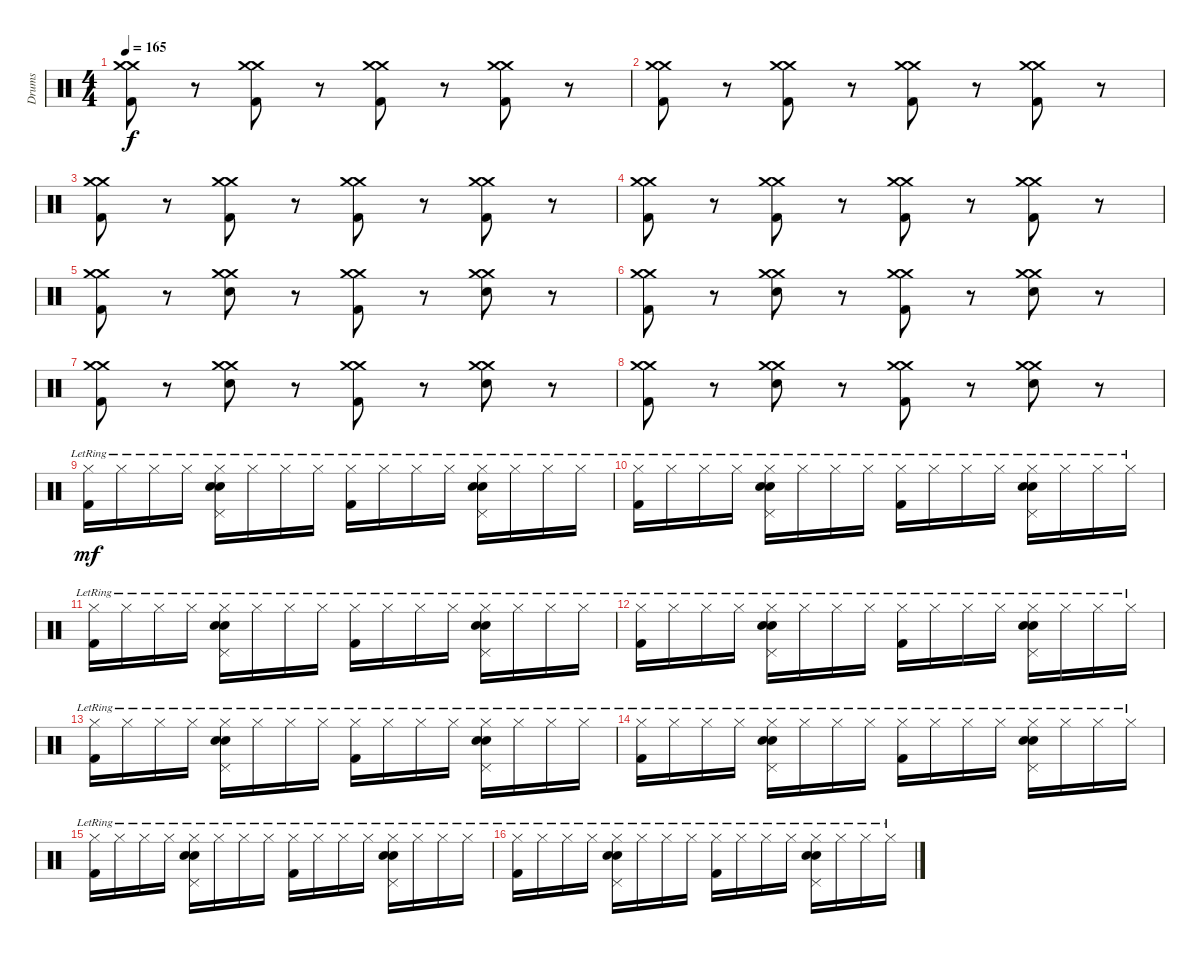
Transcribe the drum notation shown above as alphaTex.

\track ("Drums" "Drums") {instrument percussion}
\staff {score}
\articulation defaults
\ts (4 4)
\tempo 165
\clef neutral
\ks c
("Crash medium (hit)" "Crash medium (hit)" "Kick (hit) 2").8{dy f} r.8 ("Crash medium (hit)" "Crash medium (hit)" "Kick (hit) 2").8 r.8 ("Crash medium (hit)" "Crash medium (hit)" "Kick (hit) 2").8 r.8 ("Crash medium (hit)" "Crash medium (hit)" "Kick (hit) 2").8 r.8 |
("Crash medium (hit)" "Crash medium (hit)" "Kick (hit) 2").8 r.8 ("Crash medium (hit)" "Crash medium (hit)" "Kick (hit) 2").8 r.8 ("Crash medium (hit)" "Crash medium (hit)" "Kick (hit) 2").8 r.8 ("Crash medium (hit)" "Crash medium (hit)" "Kick (hit) 2").8 r.8 |
("Crash medium (hit)" "Crash medium (hit)" "Kick (hit) 2").8 r.8 ("Crash medium (hit)" "Crash medium (hit)" "Kick (hit) 2").8 r.8 ("Crash medium (hit)" "Crash medium (hit)" "Kick (hit) 2").8 r.8 ("Crash medium (hit)" "Crash medium (hit)" "Kick (hit) 2").8 r.8 |
("Crash medium (hit)" "Crash medium (hit)" "Kick (hit) 2").8 r.8 ("Crash medium (hit)" "Crash medium (hit)" "Kick (hit) 2").8 r.8 ("Crash medium (hit)" "Crash medium (hit)" "Kick (hit) 2").8 r.8 ("Crash medium (hit)" "Crash medium (hit)" "Kick (hit) 2").8 r.8 |
("Crash medium (hit)" "Crash medium (hit)" "Kick (hit) 2").8 r.8 ("Crash medium (hit)" "Crash medium (hit)" "Electric Snare (hit)").8 r.8 ("Crash medium (hit)" "Crash medium (hit)" "Kick (hit) 2").8 r.8 ("Crash medium (hit)" "Crash medium (hit)" "Electric Snare (hit)").8 r.8 |
("Crash medium (hit)" "Crash medium (hit)" "Kick (hit) 2").8 r.8 ("Crash medium (hit)" "Crash medium (hit)" "Electric Snare (hit)").8 r.8 ("Crash medium (hit)" "Crash medium (hit)" "Kick (hit) 2").8 r.8 ("Crash medium (hit)" "Crash medium (hit)" "Electric Snare (hit)").8 r.8 |
("Crash medium (hit)" "Crash medium (hit)" "Kick (hit) 2").8 r.8 ("Crash medium (hit)" "Crash medium (hit)" "Electric Snare (hit)").8 r.8 ("Crash medium (hit)" "Crash medium (hit)" "Kick (hit) 2").8 r.8 ("Crash medium (hit)" "Crash medium (hit)" "Electric Snare (hit)").8 r.8 |
("Crash medium (hit)" "Crash medium (hit)" "Kick (hit) 2").8 r.8 ("Crash medium (hit)" "Crash medium (hit)" "Electric Snare (hit)").8 r.8 ("Crash medium (hit)" "Crash medium (hit)" "Kick (hit) 2").8 r.8 ("Crash medium (hit)" "Crash medium (hit)" "Electric Snare (hit)").8 r.8 |
("Hi-Hat (closed)"{lr} "Kick (hit) 2").16{dy mf} "Hi-Hat (closed)"{lr}.16 "Hi-Hat (closed)"{lr}.16 "Hi-Hat (closed)"{lr}.16 ("Hi-Hat (closed)"{lr} "Pedal Hi-Hat (hit)" "Electric Snare (hit)" "Electric Snare (hit)").16 "Hi-Hat (closed)"{lr}.16 "Hi-Hat (closed)"{lr}.16 "Hi-Hat (closed)"{lr}.16 ("Hi-Hat (closed)"{lr} "Kick (hit) 2").16 "Hi-Hat (closed)"{lr}.16 "Hi-Hat (closed)"{lr}.16 "Hi-Hat (closed)"{lr}.16 ("Hi-Hat (closed)"{lr} "Pedal Hi-Hat (hit)" "Electric Snare (hit)" "Electric Snare (hit)").16 "Hi-Hat (closed)"{lr}.16 "Hi-Hat (closed)"{lr}.16 "Hi-Hat (closed)"{lr}.16 |
("Hi-Hat (closed)"{lr} "Kick (hit) 2").16 "Hi-Hat (closed)"{lr}.16 "Hi-Hat (closed)"{lr}.16 "Hi-Hat (closed)"{lr}.16 ("Hi-Hat (closed)"{lr} "Pedal Hi-Hat (hit)" "Electric Snare (hit)" "Electric Snare (hit)").16 "Hi-Hat (closed)"{lr}.16 "Hi-Hat (closed)"{lr}.16 "Hi-Hat (closed)"{lr}.16 ("Hi-Hat (closed)"{lr} "Kick (hit) 2").16 "Hi-Hat (closed)"{lr}.16 "Hi-Hat (closed)"{lr}.16 "Hi-Hat (closed)"{lr}.16 ("Hi-Hat (closed)"{lr} "Pedal Hi-Hat (hit)" "Electric Snare (hit)" "Electric Snare (hit)").16 "Hi-Hat (closed)"{lr}.16 "Hi-Hat (closed)"{lr}.16 "Hi-Hat (closed)"{lr}.16 |
("Hi-Hat (closed)"{lr} "Kick (hit) 2").16 "Hi-Hat (closed)"{lr}.16 "Hi-Hat (closed)"{lr}.16 "Hi-Hat (closed)"{lr}.16 ("Hi-Hat (closed)"{lr} "Pedal Hi-Hat (hit)" "Electric Snare (hit)" "Electric Snare (hit)").16 "Hi-Hat (closed)"{lr}.16 "Hi-Hat (closed)"{lr}.16 "Hi-Hat (closed)"{lr}.16 ("Hi-Hat (closed)"{lr} "Kick (hit) 2").16 "Hi-Hat (closed)"{lr}.16 "Hi-Hat (closed)"{lr}.16 "Hi-Hat (closed)"{lr}.16 ("Hi-Hat (closed)"{lr} "Pedal Hi-Hat (hit)" "Electric Snare (hit)" "Electric Snare (hit)").16 "Hi-Hat (closed)"{lr}.16 "Hi-Hat (closed)"{lr}.16 "Hi-Hat (closed)"{lr}.16 |
("Hi-Hat (closed)"{lr} "Kick (hit) 2").16 "Hi-Hat (closed)"{lr}.16 "Hi-Hat (closed)"{lr}.16 "Hi-Hat (closed)"{lr}.16 ("Hi-Hat (closed)"{lr} "Pedal Hi-Hat (hit)" "Electric Snare (hit)" "Electric Snare (hit)").16 "Hi-Hat (closed)"{lr}.16 "Hi-Hat (closed)"{lr}.16 "Hi-Hat (closed)"{lr}.16 ("Hi-Hat (closed)"{lr} "Kick (hit) 2").16 "Hi-Hat (closed)"{lr}.16 "Hi-Hat (closed)"{lr}.16 "Hi-Hat (closed)"{lr}.16 ("Hi-Hat (closed)"{lr} "Pedal Hi-Hat (hit)" "Electric Snare (hit)" "Electric Snare (hit)").16 "Hi-Hat (closed)"{lr}.16 "Hi-Hat (closed)"{lr}.16 "Hi-Hat (closed)"{lr}.16 |
("Hi-Hat (closed)"{lr} "Kick (hit) 2").16 "Hi-Hat (closed)"{lr}.16 "Hi-Hat (closed)"{lr}.16 "Hi-Hat (closed)"{lr}.16 ("Hi-Hat (closed)"{lr} "Pedal Hi-Hat (hit)" "Electric Snare (hit)" "Electric Snare (hit)").16 "Hi-Hat (closed)"{lr}.16 "Hi-Hat (closed)"{lr}.16 "Hi-Hat (closed)"{lr}.16 ("Hi-Hat (closed)"{lr} "Kick (hit) 2").16 "Hi-Hat (closed)"{lr}.16 "Hi-Hat (closed)"{lr}.16 "Hi-Hat (closed)"{lr}.16 ("Hi-Hat (closed)"{lr} "Pedal Hi-Hat (hit)" "Electric Snare (hit)" "Electric Snare (hit)").16 "Hi-Hat (closed)"{lr}.16 "Hi-Hat (closed)"{lr}.16 "Hi-Hat (closed)"{lr}.16 |
("Hi-Hat (closed)"{lr} "Kick (hit) 2").16 "Hi-Hat (closed)"{lr}.16 "Hi-Hat (closed)"{lr}.16 "Hi-Hat (closed)"{lr}.16 ("Hi-Hat (closed)"{lr} "Pedal Hi-Hat (hit)" "Electric Snare (hit)" "Electric Snare (hit)").16 "Hi-Hat (closed)"{lr}.16 "Hi-Hat (closed)"{lr}.16 "Hi-Hat (closed)"{lr}.16 ("Hi-Hat (closed)"{lr} "Kick (hit) 2").16 "Hi-Hat (closed)"{lr}.16 "Hi-Hat (closed)"{lr}.16 "Hi-Hat (closed)"{lr}.16 ("Hi-Hat (closed)"{lr} "Pedal Hi-Hat (hit)" "Electric Snare (hit)" "Electric Snare (hit)").16 "Hi-Hat (closed)"{lr}.16 "Hi-Hat (closed)"{lr}.16 "Hi-Hat (closed)"{lr}.16 |
("Hi-Hat (closed)"{lr} "Kick (hit) 2").16 "Hi-Hat (closed)"{lr}.16 "Hi-Hat (closed)"{lr}.16 "Hi-Hat (closed)"{lr}.16 ("Hi-Hat (closed)"{lr} "Pedal Hi-Hat (hit)" "Electric Snare (hit)" "Electric Snare (hit)").16 "Hi-Hat (closed)"{lr}.16 "Hi-Hat (closed)"{lr}.16 "Hi-Hat (closed)"{lr}.16 ("Hi-Hat (closed)"{lr} "Kick (hit) 2").16 "Hi-Hat (closed)"{lr}.16 "Hi-Hat (closed)"{lr}.16 "Hi-Hat (closed)"{lr}.16 ("Hi-Hat (closed)"{lr} "Pedal Hi-Hat (hit)" "Electric Snare (hit)" "Electric Snare (hit)").16 "Hi-Hat (closed)"{lr}.16 "Hi-Hat (closed)"{lr}.16 "Hi-Hat (closed)"{lr}.16 |
("Hi-Hat (closed)"{lr} "Kick (hit) 2").16 "Hi-Hat (closed)"{lr}.16 "Hi-Hat (closed)"{lr}.16 "Hi-Hat (closed)"{lr}.16 ("Hi-Hat (closed)"{lr} "Pedal Hi-Hat (hit)" "Electric Snare (hit)" "Electric Snare (hit)").16 "Hi-Hat (closed)"{lr}.16 "Hi-Hat (closed)"{lr}.16 "Hi-Hat (closed)"{lr}.16 ("Hi-Hat (closed)"{lr} "Kick (hit) 2").16 "Hi-Hat (closed)"{lr}.16 "Hi-Hat (closed)"{lr}.16 "Hi-Hat (closed)"{lr}.16 ("Hi-Hat (closed)"{lr} "Pedal Hi-Hat (hit)" "Electric Snare (hit)" "Electric Snare (hit)").16 "Hi-Hat (closed)"{lr}.16 "Hi-Hat (closed)"{lr}.16 "Hi-Hat (closed)"{lr}.16
